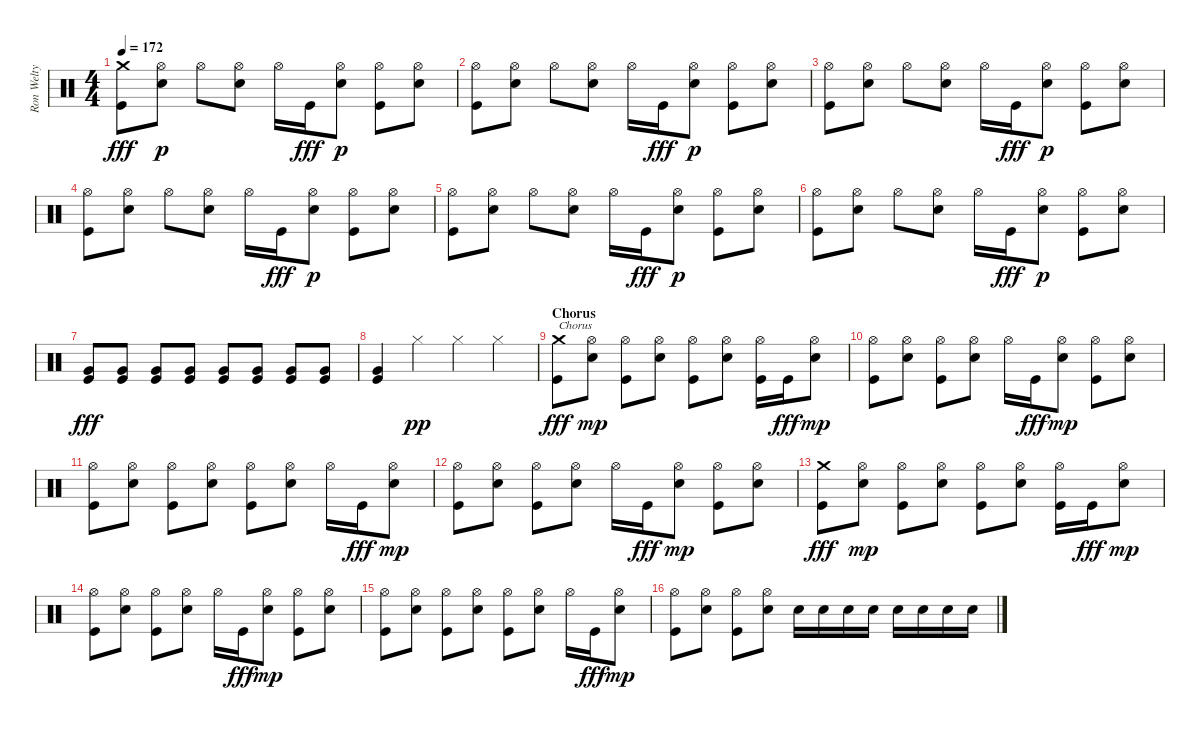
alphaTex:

\track ("Ron Welty (John Wnek's tab)" "Ron Welty ") {instrument percussion}
\staff {score}
\articulation defaults
\ts (4 4)
\tempo 172
\clef neutral
\ks c
("Crash medium (hit)" "Kick (hit)").8{dy fff} ("Snare (hit) 2" "Hi-Hat (open)").8{dy p} "Hi-Hat (open)".8 ("Snare (hit) 2" "Hi-Hat (open)").8 "Hi-Hat (open)".16 "Kick (hit)".16{dy fff} ("Snare (hit) 2" "Hi-Hat (open)").8{dy p} ("Kick (hit)" "Hi-Hat (open)").8 ("Snare (hit) 2" "Hi-Hat (open)").8 |
("Kick (hit)" "Hi-Hat (open)").8 ("Snare (hit) 2" "Hi-Hat (open)").8 "Hi-Hat (open)".8 ("Snare (hit) 2" "Hi-Hat (open)").8 "Hi-Hat (open)".16 "Kick (hit)".16{dy fff} ("Snare (hit) 2" "Hi-Hat (open)").8{dy p} ("Kick (hit)" "Hi-Hat (open)").8 ("Snare (hit) 2" "Hi-Hat (open)").8 |
("Kick (hit)" "Hi-Hat (open)").8 ("Snare (hit) 2" "Hi-Hat (open)").8 "Hi-Hat (open)".8 ("Snare (hit) 2" "Hi-Hat (open)").8 "Hi-Hat (open)".16 "Kick (hit)".16{dy fff} ("Snare (hit) 2" "Hi-Hat (open)").8{dy p} ("Kick (hit)" "Hi-Hat (open)").8 ("Snare (hit) 2" "Hi-Hat (open)").8 |
("Kick (hit)" "Hi-Hat (open)").8 ("Snare (hit) 2" "Hi-Hat (open)").8 "Hi-Hat (open)".8 ("Snare (hit) 2" "Hi-Hat (open)").8 "Hi-Hat (open)".16 "Kick (hit)".16{dy fff} ("Snare (hit) 2" "Hi-Hat (open)").8{dy p} ("Kick (hit)" "Hi-Hat (open)").8 ("Snare (hit) 2" "Hi-Hat (open)").8 |
("Kick (hit)" "Hi-Hat (open)").8 ("Snare (hit) 2" "Hi-Hat (open)").8 "Hi-Hat (open)".8 ("Snare (hit) 2" "Hi-Hat (open)").8 "Hi-Hat (open)".16 "Kick (hit)".16{dy fff} ("Snare (hit) 2" "Hi-Hat (open)").8{dy p} ("Kick (hit)" "Hi-Hat (open)").8 ("Snare (hit) 2" "Hi-Hat (open)").8 |
("Kick (hit)" "Hi-Hat (open)").8 ("Snare (hit) 2" "Hi-Hat (open)").8 "Hi-Hat (open)".8 ("Snare (hit) 2" "Hi-Hat (open)").8 "Hi-Hat (open)".16 "Kick (hit)".16{dy fff} ("Snare (hit) 2" "Hi-Hat (open)").8{dy p} ("Kick (hit)" "Hi-Hat (open)").8 ("Snare (hit) 2" "Hi-Hat (open)").8 |
("Very Low Tom (hit)" "Kick (hit)").8{dy fff} ("Very Low Tom (hit)" "Kick (hit)").8 ("Very Low Tom (hit)" "Kick (hit)").8 ("Very Low Tom (hit)" "Kick (hit)").8 ("Very Low Tom (hit)" "Kick (hit)").8 ("Very Low Tom (hit)" "Kick (hit)").8 ("Very Low Tom (hit)" "Kick (hit)").8 ("Very Low Tom (hit)" "Kick (hit)").8 |
("Very Low Tom (hit)" "Kick (hit)").4 "Hi-Hat (closed)".4{dy pp} "Hi-Hat (closed)".4 "Hi-Hat (closed)".4 |
\section ("" "Chorus")
("Crash medium (hit)" "Kick (hit)").8{txt "Chorus" dy fff} ("Snare (hit) 2" "Hi-Hat (open)").8{dy mp} ("Kick (hit)" "Hi-Hat (open)").8 ("Snare (hit) 2" "Hi-Hat (open)").8 ("Kick (hit)" "Hi-Hat (open)").8 ("Snare (hit) 2" "Hi-Hat (open)").8 ("Kick (hit)" "Hi-Hat (open)").16 "Kick (hit)".16{dy fff} ("Snare (hit) 2" "Hi-Hat (open)").8{dy mp} |
("Kick (hit)" "Hi-Hat (open)").8 ("Snare (hit) 2" "Hi-Hat (open)").8 ("Kick (hit)" "Hi-Hat (open)").8 ("Snare (hit) 2" "Hi-Hat (open)").8 "Hi-Hat (open)".16 "Kick (hit)".16{dy fff} ("Snare (hit) 2" "Hi-Hat (open)").8{dy mp} ("Kick (hit)" "Hi-Hat (open)").8 ("Snare (hit) 2" "Hi-Hat (open)").8 |
("Kick (hit)" "Hi-Hat (open)").8 ("Snare (hit) 2" "Hi-Hat (open)").8 ("Kick (hit)" "Hi-Hat (open)").8 ("Snare (hit) 2" "Hi-Hat (open)").8 ("Kick (hit)" "Hi-Hat (open)").8 ("Snare (hit) 2" "Hi-Hat (open)").8 "Hi-Hat (open)".16 "Kick (hit)".16{dy fff} ("Snare (hit) 2" "Hi-Hat (open)").8{dy mp} |
("Kick (hit)" "Hi-Hat (open)").8 ("Snare (hit) 2" "Hi-Hat (open)").8 ("Kick (hit)" "Hi-Hat (open)").8 ("Snare (hit) 2" "Hi-Hat (open)").8 "Hi-Hat (open)".16 "Kick (hit)".16{dy fff} ("Snare (hit) 2" "Hi-Hat (open)").8{dy mp} ("Kick (hit)" "Hi-Hat (open)").8 ("Snare (hit) 2" "Hi-Hat (open)").8 |
("Crash medium (hit)" "Kick (hit)").8{dy fff} ("Snare (hit) 2" "Hi-Hat (open)").8{dy mp} ("Kick (hit)" "Hi-Hat (open)").8 ("Snare (hit) 2" "Hi-Hat (open)").8 ("Kick (hit)" "Hi-Hat (open)").8 ("Snare (hit) 2" "Hi-Hat (open)").8 ("Kick (hit)" "Hi-Hat (open)").16 "Kick (hit)".16{dy fff} ("Snare (hit) 2" "Hi-Hat (open)").8{dy mp} |
("Kick (hit)" "Hi-Hat (open)").8 ("Snare (hit) 2" "Hi-Hat (open)").8 ("Kick (hit)" "Hi-Hat (open)").8 ("Snare (hit) 2" "Hi-Hat (open)").8 "Hi-Hat (open)".16 "Kick (hit)".16{dy fff} ("Snare (hit) 2" "Hi-Hat (open)").8{dy mp} ("Kick (hit)" "Hi-Hat (open)").8 ("Snare (hit) 2" "Hi-Hat (open)").8 |
("Kick (hit)" "Hi-Hat (open)").8 ("Snare (hit) 2" "Hi-Hat (open)").8 ("Kick (hit)" "Hi-Hat (open)").8 ("Snare (hit) 2" "Hi-Hat (open)").8 ("Kick (hit)" "Hi-Hat (open)").8 ("Snare (hit) 2" "Hi-Hat (open)").8 "Hi-Hat (open)".16 "Kick (hit)".16{dy fff} ("Snare (hit) 2" "Hi-Hat (open)").8{dy mp} |
("Kick (hit)" "Hi-Hat (open)").8 ("Snare (hit) 2" "Hi-Hat (open)").8 ("Kick (hit)" "Hi-Hat (open)").8 ("Snare (hit) 2" "Hi-Hat (open)").8 "Snare (hit) 2".16 "Snare (hit) 2".16 "Snare (hit) 2".16 "Snare (hit) 2".16 "Snare (hit) 2".16 "Snare (hit) 2".16 "Snare (hit) 2".16 "Snare (hit) 2".16
